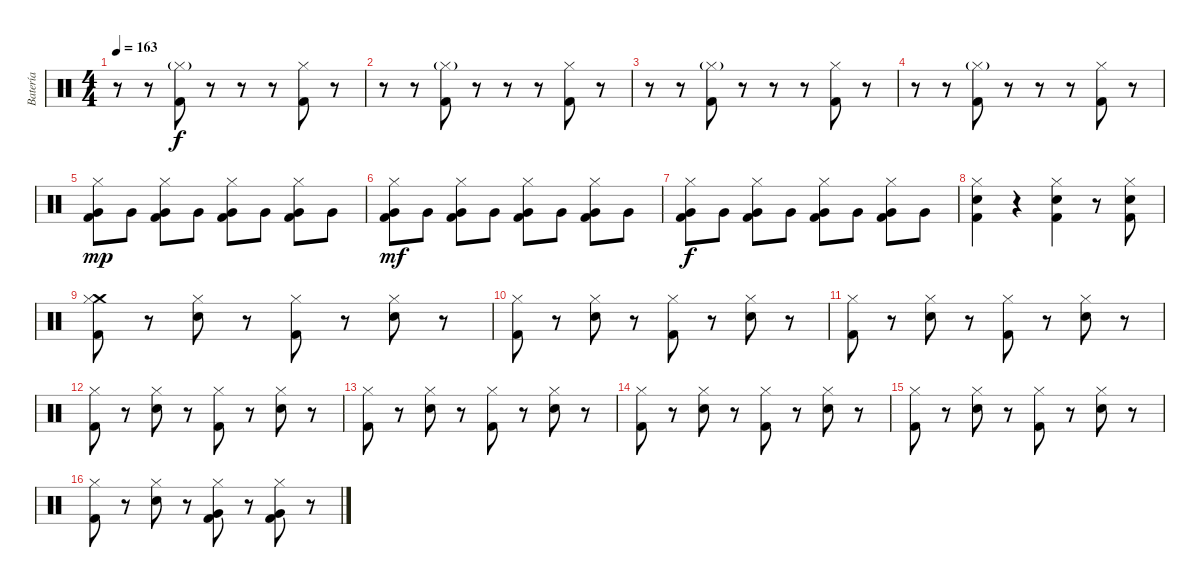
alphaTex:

\track ("Batería" "Batería") {instrument percussion}
\staff {score}
\articulation defaults
\ts (4 4)
\tempo 163
\clef neutral
\ks c
r.8{dy f} r.8 ("Hi-Hat (closed)"{g} "Kick (hit) 2").8 r.8 r.8 r.8 ("Hi-Hat (closed)" "Kick (hit) 2").8 r.8 |
r.8 r.8 ("Hi-Hat (closed)"{g} "Kick (hit) 2").8 r.8 r.8 r.8 ("Hi-Hat (closed)" "Kick (hit) 2").8 r.8 |
r.8 r.8 ("Hi-Hat (closed)"{g} "Kick (hit) 2").8 r.8 r.8 r.8 ("Hi-Hat (closed)" "Kick (hit) 2").8 r.8 |
r.8 r.8 ("Hi-Hat (closed)"{g} "Kick (hit) 2").8 r.8 r.8 r.8 ("Hi-Hat (closed)" "Kick (hit) 2").8 r.8 |
("Hi-Hat (closed)" "Very Low Tom (hit)" "Kick (hit) 2").8{dy mp} "Very Low Tom (hit)".8 ("Hi-Hat (closed)" "Very Low Tom (hit)" "Kick (hit) 2").8 "Very Low Tom (hit)".8 ("Hi-Hat (closed)" "Very Low Tom (hit)" "Kick (hit) 2").8 "Very Low Tom (hit)".8 ("Hi-Hat (closed)" "Very Low Tom (hit)" "Kick (hit) 2").8 "Very Low Tom (hit)".8 |
("Hi-Hat (closed)" "Very Low Tom (hit)" "Kick (hit) 2").8{dy mf} "Very Low Tom (hit)".8 ("Hi-Hat (closed)" "Very Low Tom (hit)" "Kick (hit) 2").8 "Very Low Tom (hit)".8 ("Hi-Hat (closed)" "Very Low Tom (hit)" "Kick (hit) 2").8 "Very Low Tom (hit)".8 ("Hi-Hat (closed)" "Very Low Tom (hit)" "Kick (hit) 2").8 "Very Low Tom (hit)".8 |
("Hi-Hat (closed)" "Very Low Tom (hit)" "Kick (hit) 2").8{dy f} "Very Low Tom (hit)".8 ("Hi-Hat (closed)" "Very Low Tom (hit)" "Kick (hit) 2").8 "Very Low Tom (hit)".8 ("Hi-Hat (closed)" "Very Low Tom (hit)" "Kick (hit) 2").8 "Very Low Tom (hit)".8 ("Hi-Hat (closed)" "Very Low Tom (hit)" "Kick (hit) 2").8 "Very Low Tom (hit)".8 |
("Hi-Hat (closed)" "Snare (hit) 2" "Kick (hit) 2").4 r.4 ("Hi-Hat (closed)" "Snare (hit) 2" "Kick (hit) 2").4 r.8 ("Hi-Hat (closed)" "Snare (hit) 2" "Kick (hit) 2").8 |
("Crash medium (hit)" "Hi-Hat (closed)" "Kick (hit) 2").8 r.8 ("Hi-Hat (closed)" "Snare (hit) 2").8 r.8 ("Hi-Hat (closed)" "Kick (hit) 2").8 r.8 ("Hi-Hat (closed)" "Snare (hit) 2").8 r.8 |
("Hi-Hat (closed)" "Kick (hit) 2").8 r.8 ("Hi-Hat (closed)" "Snare (hit) 2").8 r.8 ("Hi-Hat (closed)" "Kick (hit) 2").8 r.8 ("Hi-Hat (closed)" "Snare (hit) 2").8 r.8 |
("Hi-Hat (closed)" "Kick (hit) 2").8 r.8 ("Hi-Hat (closed)" "Snare (hit) 2").8 r.8 ("Hi-Hat (closed)" "Kick (hit) 2").8 r.8 ("Hi-Hat (closed)" "Snare (hit) 2").8 r.8 |
("Hi-Hat (closed)" "Kick (hit) 2").8 r.8 ("Hi-Hat (closed)" "Snare (hit) 2").8 r.8 ("Hi-Hat (closed)" "Kick (hit) 2").8 r.8 ("Hi-Hat (closed)" "Snare (hit) 2").8 r.8 |
("Hi-Hat (closed)" "Kick (hit) 2").8 r.8 ("Hi-Hat (closed)" "Snare (hit) 2").8 r.8 ("Hi-Hat (closed)" "Kick (hit) 2").8 r.8 ("Hi-Hat (closed)" "Snare (hit) 2").8 r.8 |
("Hi-Hat (closed)" "Kick (hit) 2").8 r.8 ("Hi-Hat (closed)" "Snare (hit) 2").8 r.8 ("Hi-Hat (closed)" "Kick (hit) 2").8 r.8 ("Hi-Hat (closed)" "Snare (hit) 2").8 r.8 |
("Hi-Hat (closed)" "Kick (hit) 2").8 r.8 ("Hi-Hat (closed)" "Snare (hit) 2").8 r.8 ("Hi-Hat (closed)" "Kick (hit) 2").8 r.8 ("Hi-Hat (closed)" "Snare (hit) 2").8 r.8 |
("Hi-Hat (closed)" "Kick (hit) 2").8 r.8 ("Hi-Hat (closed)" "Snare (hit) 2").8 r.8 ("Hi-Hat (closed)" "Very Low Tom (hit)" "Kick (hit) 2").8 r.8 ("Hi-Hat (closed)" "Very Low Tom (hit)" "Kick (hit) 2").8 r.8
